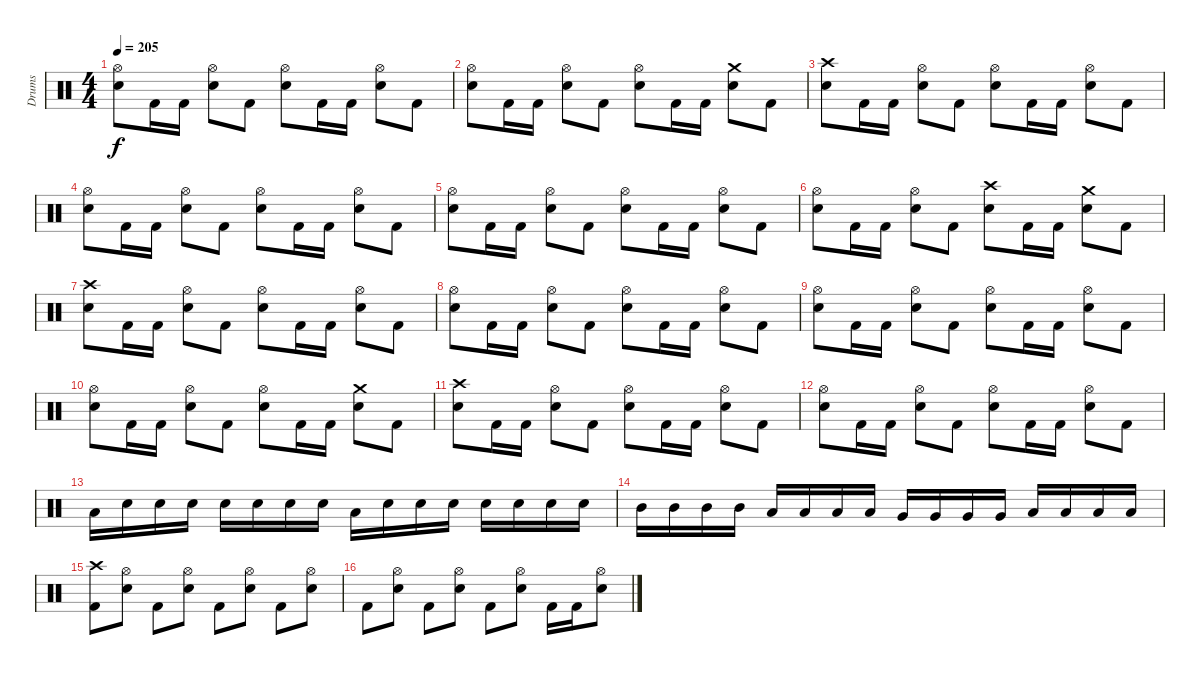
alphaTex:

\track ("Drums" "Drums") {instrument percussion}
\staff {score}
\articulation defaults
\ts (4 4)
\tempo 205
\clef neutral
\ks c
("Hi-Hat (open)" "Snare (hit) 2").8{dy f} "Kick (hit) 2".16 "Kick (hit) 2".16 ("Hi-Hat (open)" "Snare (hit) 2").8 "Kick (hit) 2".8 ("Hi-Hat (open)" "Snare (hit) 2").8 "Kick (hit) 2".16 "Kick (hit) 2".16 ("Hi-Hat (open)" "Snare (hit) 2").8 "Kick (hit) 2".8 |
("Hi-Hat (open)" "Snare (hit) 2").8 "Kick (hit) 2".16 "Kick (hit) 2".16 ("Hi-Hat (open)" "Snare (hit) 2").8 "Kick (hit) 2".8 ("Hi-Hat (open)" "Snare (hit) 2").8 "Kick (hit) 2".16 "Kick (hit) 2".16 ("Crash medium (hit)" "Snare (hit) 2").8 "Kick (hit) 2".8 |
("Crash high (hit)" "Snare (hit) 2").8 "Kick (hit) 2".16 "Kick (hit) 2".16 ("Hi-Hat (open)" "Snare (hit) 2").8 "Kick (hit) 2".8 ("Hi-Hat (open)" "Snare (hit) 2").8 "Kick (hit) 2".16 "Kick (hit) 2".16 ("Hi-Hat (open)" "Snare (hit) 2").8 "Kick (hit) 2".8 |
("Hi-Hat (open)" "Snare (hit) 2").8 "Kick (hit) 2".16 "Kick (hit) 2".16 ("Hi-Hat (open)" "Snare (hit) 2").8 "Kick (hit) 2".8 ("Hi-Hat (open)" "Snare (hit) 2").8 "Kick (hit) 2".16 "Kick (hit) 2".16 ("Hi-Hat (open)" "Snare (hit) 2").8 "Kick (hit) 2".8 |
("Hi-Hat (open)" "Snare (hit) 2").8 "Kick (hit) 2".16 "Kick (hit) 2".16 ("Hi-Hat (open)" "Snare (hit) 2").8 "Kick (hit) 2".8 ("Hi-Hat (open)" "Snare (hit) 2").8 "Kick (hit) 2".16 "Kick (hit) 2".16 ("Hi-Hat (open)" "Snare (hit) 2").8 "Kick (hit) 2".8 |
("Hi-Hat (open)" "Snare (hit) 2").8 "Kick (hit) 2".16 "Kick (hit) 2".16 ("Hi-Hat (open)" "Snare (hit) 2").8 "Kick (hit) 2".8 ("Crash high (hit)" "Snare (hit) 2").8 "Kick (hit) 2".16 "Kick (hit) 2".16 ("Crash medium (hit)" "Snare (hit) 2").8 "Kick (hit) 2".8 |
("Crash high (hit)" "Snare (hit) 2").8 "Kick (hit) 2".16 "Kick (hit) 2".16 ("Hi-Hat (open)" "Snare (hit) 2").8 "Kick (hit) 2".8 ("Hi-Hat (open)" "Snare (hit) 2").8 "Kick (hit) 2".16 "Kick (hit) 2".16 ("Hi-Hat (open)" "Snare (hit) 2").8 "Kick (hit) 2".8 |
("Hi-Hat (open)" "Snare (hit) 2").8 "Kick (hit) 2".16 "Kick (hit) 2".16 ("Hi-Hat (open)" "Snare (hit) 2").8 "Kick (hit) 2".8 ("Hi-Hat (open)" "Snare (hit) 2").8 "Kick (hit) 2".16 "Kick (hit) 2".16 ("Hi-Hat (open)" "Snare (hit) 2").8 "Kick (hit) 2".8 |
("Hi-Hat (open)" "Snare (hit) 2").8 "Kick (hit) 2".16 "Kick (hit) 2".16 ("Hi-Hat (open)" "Snare (hit) 2").8 "Kick (hit) 2".8 ("Hi-Hat (open)" "Snare (hit) 2").8 "Kick (hit) 2".16 "Kick (hit) 2".16 ("Hi-Hat (open)" "Snare (hit) 2").8 "Kick (hit) 2".8 |
("Hi-Hat (open)" "Snare (hit) 2").8 "Kick (hit) 2".16 "Kick (hit) 2".16 ("Hi-Hat (open)" "Snare (hit) 2").8 "Kick (hit) 2".8 ("Hi-Hat (open)" "Snare (hit) 2").8 "Kick (hit) 2".16 "Kick (hit) 2".16 ("Crash medium (hit)" "Snare (hit) 2").8 "Kick (hit) 2".8 |
("Crash high (hit)" "Snare (hit) 2").8 "Kick (hit) 2".16 "Kick (hit) 2".16 ("Hi-Hat (open)" "Snare (hit) 2").8 "Kick (hit) 2".8 ("Hi-Hat (open)" "Snare (hit) 2").8 "Kick (hit) 2".16 "Kick (hit) 2".16 ("Hi-Hat (open)" "Snare (hit) 2").8 "Kick (hit) 2".8 |
("Hi-Hat (open)" "Snare (hit) 2").8 "Kick (hit) 2".16 "Kick (hit) 2".16 ("Hi-Hat (open)" "Snare (hit) 2").8 "Kick (hit) 2".8 ("Hi-Hat (open)" "Snare (hit) 2").8 "Kick (hit) 2".16 "Kick (hit) 2".16 ("Hi-Hat (open)" "Snare (hit) 2").8 "Kick (hit) 2".8 |
"Low Tom (hit)".16 "Snare (hit) 2".16 "Snare (hit) 2".16 "Snare (hit) 2".16 "Snare (hit) 2".16 "Snare (hit) 2".16 "Snare (hit) 2".16 "Snare (hit) 2".16 "Low Tom (hit)".16 "Snare (hit) 2".16 "Snare (hit) 2".16 "Snare (hit) 2".16 "Snare (hit) 2".16 "Snare (hit) 2".16 "Snare (hit) 2".16 "Snare (hit) 2".16 |
"Mid Tom (hit)".16 "Mid Tom (hit)".16 "Mid Tom (hit)".16 "Mid Tom (hit)".16 "Low Tom (hit)".16 "Low Tom (hit)".16 "Low Tom (hit)".16 "Low Tom (hit)".16 "Very Low Tom (hit)".16 "Very Low Tom (hit)".16 "Very Low Tom (hit)".16 "Very Low Tom (hit)".16 "Low Floor Tom (hit)".16 "Low Floor Tom (hit)".16 "Low Floor Tom (hit)".16 "Low Floor Tom (hit)".16 |
("Crash high (hit)" "Kick (hit) 2").8 ("Hi-Hat (open)" "Snare (hit) 2").8 "Kick (hit) 2".8 ("Hi-Hat (open)" "Snare (hit) 2").8 "Kick (hit) 2".8 ("Hi-Hat (open)" "Snare (hit) 2").8 "Kick (hit) 2".8 ("Hi-Hat (open)" "Snare (hit) 2").8 |
"Kick (hit) 2".8 ("Hi-Hat (open)" "Snare (hit) 2").8 "Kick (hit) 2".8 ("Hi-Hat (open)" "Snare (hit) 2").8 "Kick (hit) 2".8 ("Hi-Hat (open)" "Snare (hit) 2").8 "Kick (hit) 2".16 "Kick (hit) 2".16 ("Hi-Hat (open)" "Snare (hit) 2").8
